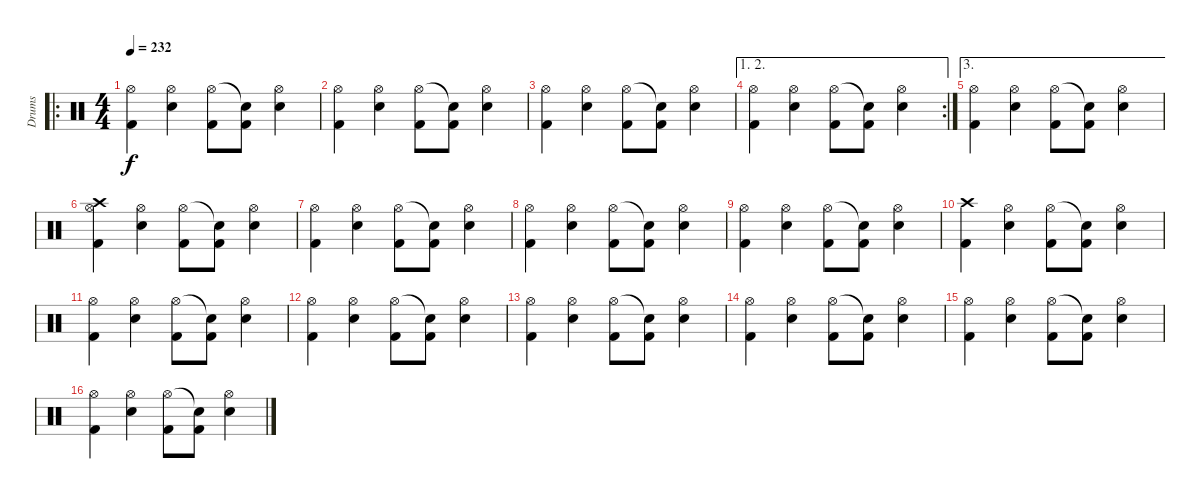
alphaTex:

\track ("Drums" "Drums") {instrument percussion}
\staff {score}
\articulation defaults
\ro
\ts (4 4)
\tempo 232
\clef neutral
\ks c
("Hi-Hat (open)" "Kick (hit) 2").4{dy f} ("Hi-Hat (open)" "Snare (hit) 2").4 ("Hi-Hat (open)" "Kick (hit) 2").8 ("Snare (hit)"{t} "Kick (hit) 2").8 ("Hi-Hat (open)" "Snare (hit) 2").4 |
("Hi-Hat (open)" "Kick (hit) 2").4 ("Hi-Hat (open)" "Snare (hit) 2").4 ("Hi-Hat (open)" "Kick (hit) 2").8 ("Snare (hit)"{t} "Kick (hit) 2").8 ("Hi-Hat (open)" "Snare (hit) 2").4 |
("Hi-Hat (open)" "Kick (hit) 2").4 ("Hi-Hat (open)" "Snare (hit) 2").4 ("Hi-Hat (open)" "Kick (hit) 2").8 ("Snare (hit)"{t} "Kick (hit) 2").8 ("Hi-Hat (open)" "Snare (hit) 2").4 |
\ae (1 2)
\rc 2
("Hi-Hat (open)" "Kick (hit) 2").4 ("Hi-Hat (open)" "Snare (hit) 2").4 ("Hi-Hat (open)" "Kick (hit) 2").8 ("Snare (hit)"{t} "Kick (hit) 2").8 ("Hi-Hat (open)" "Snare (hit) 2").4 |
\ae 3
("Hi-Hat (open)" "Kick (hit) 2").4 ("Hi-Hat (open)" "Snare (hit) 2").4 ("Hi-Hat (open)" "Kick (hit) 2").8 ("Snare (hit)"{t} "Kick (hit) 2").8 ("Hi-Hat (open)" "Snare (hit) 2").4 |
("Crash high (hit)" "Hi-Hat (open)" "Kick (hit) 2").4 ("Hi-Hat (open)" "Snare (hit) 2").4 ("Hi-Hat (open)" "Kick (hit) 2").8 ("Snare (hit)"{t} "Kick (hit) 2").8 ("Hi-Hat (open)" "Snare (hit) 2").4 |
("Hi-Hat (open)" "Kick (hit) 2").4 ("Hi-Hat (open)" "Snare (hit) 2").4 ("Hi-Hat (open)" "Kick (hit) 2").8 ("Snare (hit)"{t} "Kick (hit) 2").8 ("Hi-Hat (open)" "Snare (hit) 2").4 |
("Hi-Hat (open)" "Kick (hit) 2").4 ("Hi-Hat (open)" "Snare (hit) 2").4 ("Hi-Hat (open)" "Kick (hit) 2").8 ("Snare (hit)"{t} "Kick (hit) 2").8 ("Hi-Hat (open)" "Snare (hit) 2").4 |
("Hi-Hat (open)" "Kick (hit) 2").4 ("Hi-Hat (open)" "Snare (hit) 2").4 ("Hi-Hat (open)" "Kick (hit) 2").8 ("Snare (hit)"{t} "Kick (hit) 2").8 ("Hi-Hat (open)" "Snare (hit) 2").4 |
("Crash high (hit)" "Kick (hit) 2").4 ("Hi-Hat (open)" "Snare (hit) 2").4 ("Hi-Hat (open)" "Kick (hit) 2").8 ("Snare (hit)"{t} "Kick (hit) 2").8 ("Hi-Hat (open)" "Snare (hit) 2").4 |
("Hi-Hat (open)" "Kick (hit) 2").4 ("Hi-Hat (open)" "Snare (hit) 2").4 ("Hi-Hat (open)" "Kick (hit) 2").8 ("Snare (hit)"{t} "Kick (hit) 2").8 ("Hi-Hat (open)" "Snare (hit) 2").4 |
("Hi-Hat (open)" "Kick (hit) 2").4 ("Hi-Hat (open)" "Snare (hit) 2").4 ("Hi-Hat (open)" "Kick (hit) 2").8 ("Snare (hit)"{t} "Kick (hit) 2").8 ("Hi-Hat (open)" "Snare (hit) 2").4 |
("Hi-Hat (open)" "Kick (hit) 2").4 ("Hi-Hat (open)" "Snare (hit) 2").4 ("Hi-Hat (open)" "Kick (hit) 2").8 ("Snare (hit)"{t} "Kick (hit) 2").8 ("Hi-Hat (open)" "Snare (hit) 2").4 |
("Hi-Hat (open)" "Kick (hit) 2").4 ("Hi-Hat (open)" "Snare (hit) 2").4 ("Hi-Hat (open)" "Kick (hit) 2").8 ("Snare (hit)"{t} "Kick (hit) 2").8 ("Hi-Hat (open)" "Snare (hit) 2").4 |
("Hi-Hat (open)" "Kick (hit) 2").4 ("Hi-Hat (open)" "Snare (hit) 2").4 ("Hi-Hat (open)" "Kick (hit) 2").8 ("Snare (hit)"{t} "Kick (hit) 2").8 ("Hi-Hat (open)" "Snare (hit) 2").4 |
("Hi-Hat (open)" "Kick (hit) 2").4 ("Hi-Hat (open)" "Snare (hit) 2").4 ("Hi-Hat (open)" "Kick (hit) 2").8 ("Snare (hit)"{t} "Kick (hit) 2").8 ("Hi-Hat (open)" "Snare (hit) 2").4
